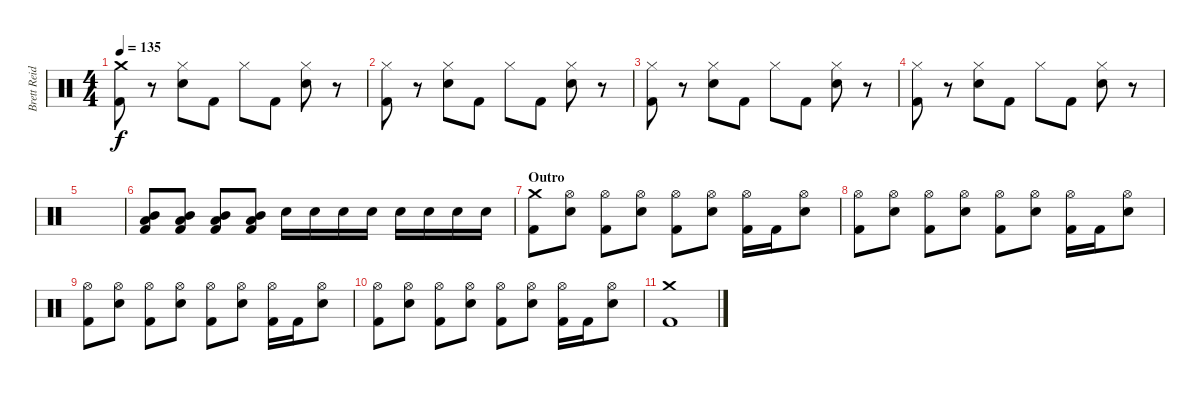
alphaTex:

\track ("Brett Reid" "Brett Reid") {instrument percussion}
\staff {score}
\articulation defaults
\ts (4 4)
\tempo 135
\clef neutral
\ks c
("Crash medium (hit)" "Kick (hit) 2").8{dy f} r.8 ("Hi-Hat (closed)" "Electric Snare (hit)").8 "Kick (hit) 2".8 "Hi-Hat (closed)".8 "Kick (hit) 2".8 ("Hi-Hat (closed)" "Electric Snare (hit)").8 r.8 |
("Hi-Hat (closed)" "Kick (hit) 2").8 r.8 ("Hi-Hat (closed)" "Electric Snare (hit)").8 "Kick (hit) 2".8 "Hi-Hat (closed)".8 "Kick (hit) 2".8 ("Hi-Hat (closed)" "Electric Snare (hit)").8 r.8 |
("Hi-Hat (closed)" "Kick (hit) 2").8 r.8 ("Hi-Hat (closed)" "Electric Snare (hit)").8 "Kick (hit) 2".8 "Hi-Hat (closed)".8 "Kick (hit) 2".8 ("Hi-Hat (closed)" "Electric Snare (hit)").8 r.8 |
("Hi-Hat (closed)" "Kick (hit) 2").8 r.8 ("Hi-Hat (closed)" "Electric Snare (hit)").8 "Kick (hit) 2".8 "Hi-Hat (closed)".8 "Kick (hit) 2".8 ("Hi-Hat (closed)" "Electric Snare (hit)").8 r.8 |
|
("Mid Tom (hit)" "Low Floor Tom (hit)" "Kick (hit) 2").8 ("Mid Tom (hit)" "Low Floor Tom (hit)" "Kick (hit) 2").8 ("Mid Tom (hit)" "Low Floor Tom (hit)" "Kick (hit) 2").8 ("Mid Tom (hit)" "Low Floor Tom (hit)" "Kick (hit) 2").8 "Electric Snare (hit)".16 "Electric Snare (hit)".16 "Electric Snare (hit)".16 "Electric Snare (hit)".16 "Electric Snare (hit)".16 "Electric Snare (hit)".16 "Electric Snare (hit)".16 "Electric Snare (hit)".16 |
\section ("" "Outro")
("Crash medium (hit)" "Kick (hit) 2").8 ("Hi-Hat (open)" "Electric Snare (hit)").8 ("Hi-Hat (open)" "Kick (hit) 2").8 ("Hi-Hat (open)" "Electric Snare (hit)").8 ("Hi-Hat (open)" "Kick (hit) 2").8 ("Hi-Hat (open)" "Electric Snare (hit)").8 ("Hi-Hat (open)" "Kick (hit) 2").16 "Kick (hit) 2".16 ("Hi-Hat (open)" "Electric Snare (hit)").8 |
("Hi-Hat (open)" "Kick (hit) 2").8 ("Hi-Hat (open)" "Electric Snare (hit)").8 ("Hi-Hat (open)" "Kick (hit) 2").8 ("Hi-Hat (open)" "Electric Snare (hit)").8 ("Hi-Hat (open)" "Kick (hit) 2").8 ("Hi-Hat (open)" "Electric Snare (hit)").8 ("Hi-Hat (open)" "Kick (hit) 2").16 "Kick (hit) 2".16 ("Hi-Hat (open)" "Electric Snare (hit)").8 |
("Hi-Hat (open)" "Kick (hit) 2").8 ("Hi-Hat (open)" "Electric Snare (hit)").8 ("Hi-Hat (open)" "Kick (hit) 2").8 ("Hi-Hat (open)" "Electric Snare (hit)").8 ("Hi-Hat (open)" "Kick (hit) 2").8 ("Hi-Hat (open)" "Electric Snare (hit)").8 ("Hi-Hat (open)" "Kick (hit) 2").16 "Kick (hit) 2".16 ("Hi-Hat (open)" "Electric Snare (hit)").8 |
("Hi-Hat (open)" "Kick (hit) 2").8 ("Hi-Hat (open)" "Electric Snare (hit)").8 ("Hi-Hat (open)" "Kick (hit) 2").8 ("Hi-Hat (open)" "Electric Snare (hit)").8 ("Hi-Hat (open)" "Kick (hit) 2").8 ("Hi-Hat (open)" "Electric Snare (hit)").8 ("Hi-Hat (open)" "Kick (hit) 2").16 "Kick (hit) 2".16 ("Hi-Hat (open)" "Electric Snare (hit)").8 |
("Crash medium (hit)" "Kick (hit) 2").1
